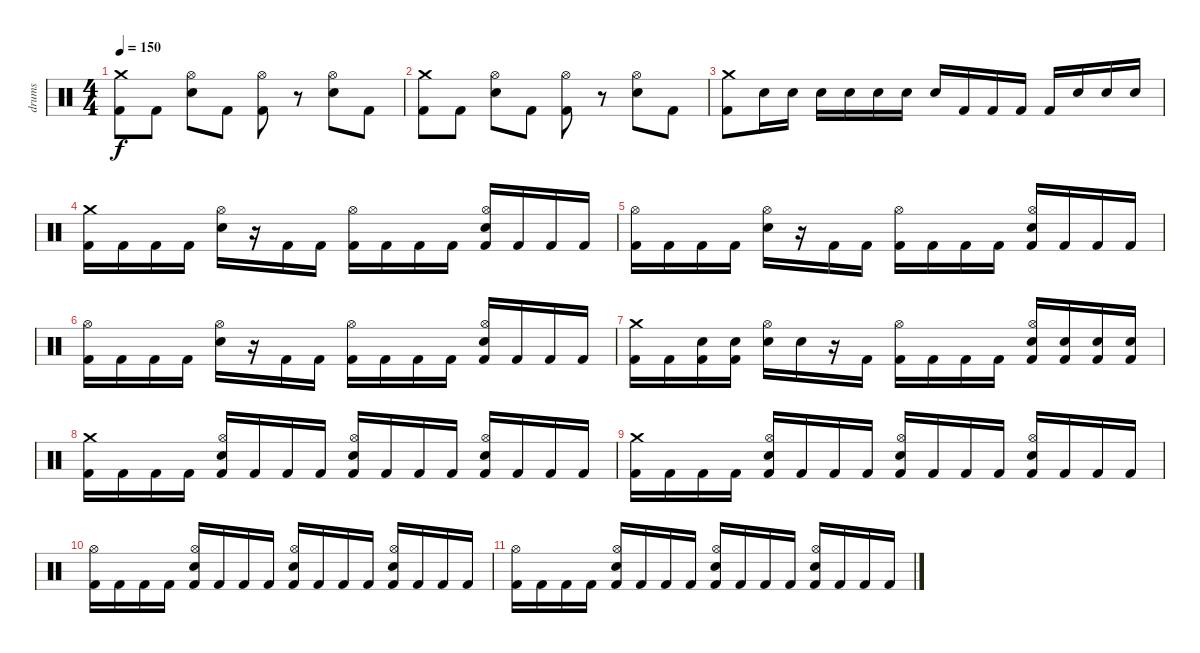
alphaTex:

\track ("drums" "drums") {instrument percussion}
\staff {score}
\articulation defaults
\ts (4 4)
\tempo 150
\clef neutral
\ks c
("Crash medium (hit)" "Kick (hit) 2").8{dy f} "Kick (hit) 2".8 ("Hi-Hat (open)" "Electric Snare (hit)").8 "Kick (hit) 2".8 ("Hi-Hat (open)" "Kick (hit) 2").8 r.8 ("Hi-Hat (open)" "Electric Snare (hit)").8 "Kick (hit) 2".8 |
("Crash medium (hit)" "Kick (hit) 2").8 "Kick (hit) 2".8 ("Hi-Hat (open)" "Electric Snare (hit)").8 "Kick (hit) 2".8 ("Hi-Hat (open)" "Kick (hit) 2").8 r.8 ("Hi-Hat (open)" "Electric Snare (hit)").8 "Kick (hit) 2".8 |
("Crash medium (hit)" "Kick (hit) 2").8 "Electric Snare (hit)".16 "Electric Snare (hit)".16 "Electric Snare (hit)".16 "Snare (hit) 2".16 "Snare (hit) 2".16 "Snare (hit) 2".16 "Snare (hit) 2".16 "Kick (hit) 2".16 "Kick (hit) 2".16 "Kick (hit) 2".16 "Kick (hit) 2".16 "Electric Snare (hit)".16 "Electric Snare (hit)".16 "Snare (hit) 2".16 |
("Crash medium (hit)" "Kick (hit) 2").16 "Kick (hit) 2".16 "Kick (hit) 2".16 "Kick (hit) 2".16 ("Hi-Hat (open)" "Electric Snare (hit)").16 r.16 "Kick (hit) 2".16 "Kick (hit) 2".16 ("Hi-Hat (open)" "Kick (hit) 2").16 "Kick (hit) 2".16 "Kick (hit) 2".16 "Kick (hit) 2".16 ("Hi-Hat (open)" "Electric Snare (hit)" "Kick (hit) 2").16 "Kick (hit) 2".16 "Kick (hit) 2".16 "Kick (hit) 2".16 |
("Hi-Hat (open)" "Kick (hit) 2").16 "Kick (hit) 2".16 "Kick (hit) 2".16 "Kick (hit) 2".16 ("Hi-Hat (open)" "Electric Snare (hit)").16 r.16 "Kick (hit) 2".16 "Kick (hit) 2".16 ("Hi-Hat (open)" "Kick (hit) 2").16 "Kick (hit) 2".16 "Kick (hit) 2".16 "Kick (hit) 2".16 ("Hi-Hat (open)" "Electric Snare (hit)" "Kick (hit) 2").16 "Kick (hit) 2".16 "Kick (hit) 2".16 "Kick (hit) 2".16 |
("Hi-Hat (open)" "Kick (hit) 2").16 "Kick (hit) 2".16 "Kick (hit) 2".16 "Kick (hit) 2".16 ("Hi-Hat (open)" "Electric Snare (hit)").16 r.16 "Kick (hit) 2".16 "Kick (hit) 2".16 ("Hi-Hat (open)" "Kick (hit) 2").16 "Kick (hit) 2".16 "Kick (hit) 2".16 "Kick (hit) 2".16 ("Hi-Hat (open)" "Electric Snare (hit)" "Kick (hit) 2").16 "Kick (hit) 2".16 "Kick (hit) 2".16 "Kick (hit) 2".16 |
("Crash medium (hit)" "Kick (hit) 2").16 "Kick (hit) 2".16 ("Electric Snare (hit)" "Kick (hit) 2").16 ("Electric Snare (hit)" "Kick (hit) 2").16 ("Hi-Hat (open)" "Electric Snare (hit)").16 "Electric Snare (hit)".16 r.16 "Kick (hit) 2".16 ("Hi-Hat (open)" "Kick (hit) 2").16 "Kick (hit) 2".16 "Kick (hit) 2".16 "Kick (hit) 2".16 ("Hi-Hat (open)" "Electric Snare (hit)" "Kick (hit) 2").16 ("Electric Snare (hit)" "Kick (hit) 2").16 ("Electric Snare (hit)" "Kick (hit) 2").16 ("Electric Snare (hit)" "Kick (hit) 2").16 |
("Crash medium (hit)" "Kick (hit) 2").16 "Kick (hit) 2".16 "Kick (hit) 2".16 "Kick (hit) 2".16 ("Hi-Hat (open)" "Electric Snare (hit)" "Kick (hit) 2").16 "Kick (hit) 2".16 "Kick (hit) 2".16 "Kick (hit) 2".16 ("Hi-Hat (open)" "Electric Snare (hit)" "Kick (hit) 2").16 "Kick (hit) 2".16 "Kick (hit) 2".16 "Kick (hit) 2".16 ("Hi-Hat (open)" "Electric Snare (hit)" "Kick (hit) 2").16 "Kick (hit) 2".16 "Kick (hit) 2".16 "Kick (hit) 2".16 |
("Crash medium (hit)" "Kick (hit) 2").16 "Kick (hit) 2".16 "Kick (hit) 2".16 "Kick (hit) 2".16 ("Hi-Hat (open)" "Electric Snare (hit)" "Kick (hit) 2").16 "Kick (hit) 2".16 "Kick (hit) 2".16 "Kick (hit) 2".16 ("Hi-Hat (open)" "Electric Snare (hit)" "Kick (hit) 2").16 "Kick (hit) 2".16 "Kick (hit) 2".16 "Kick (hit) 2".16 ("Hi-Hat (open)" "Electric Snare (hit)" "Kick (hit) 2").16 "Kick (hit) 2".16 "Kick (hit) 2".16 "Kick (hit) 2".16 |
("Hi-Hat (open)" "Kick (hit) 2").16 "Kick (hit) 2".16 "Kick (hit) 2".16 "Kick (hit) 2".16 ("Hi-Hat (open)" "Electric Snare (hit)" "Kick (hit) 2").16 "Kick (hit) 2".16 "Kick (hit) 2".16 "Kick (hit) 2".16 ("Hi-Hat (open)" "Electric Snare (hit)" "Kick (hit) 2").16 "Kick (hit) 2".16 "Kick (hit) 2".16 "Kick (hit) 2".16 ("Hi-Hat (open)" "Electric Snare (hit)" "Kick (hit) 2").16 "Kick (hit) 2".16 "Kick (hit) 2".16 "Kick (hit) 2".16 |
("Hi-Hat (open)" "Kick (hit) 2").16 "Kick (hit) 2".16 "Kick (hit) 2".16 "Kick (hit) 2".16 ("Hi-Hat (open)" "Electric Snare (hit)" "Kick (hit) 2").16 "Kick (hit) 2".16 "Kick (hit) 2".16 "Kick (hit) 2".16 ("Hi-Hat (open)" "Electric Snare (hit)" "Kick (hit) 2").16 "Kick (hit) 2".16 "Kick (hit) 2".16 "Kick (hit) 2".16 ("Hi-Hat (open)" "Electric Snare (hit)" "Kick (hit) 2").16 "Kick (hit) 2".16 "Kick (hit) 2".16 "Kick (hit) 2".16
